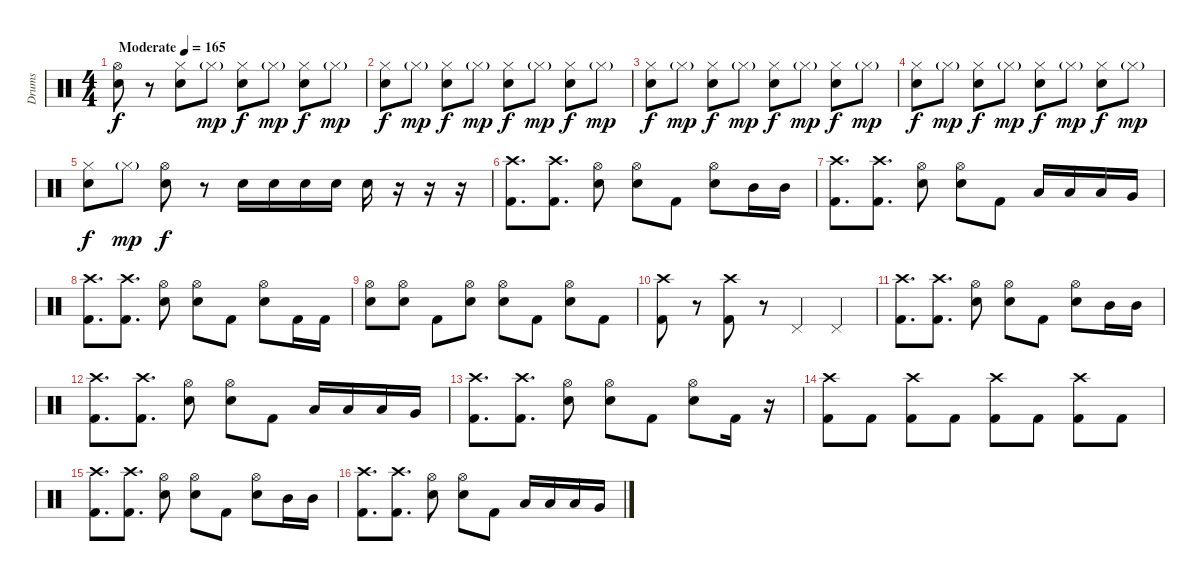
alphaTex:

\track ("Drums" "Drums") {instrument percussion}
\staff {score}
\articulation defaults
\ts (4 4)
\tempo (165 "Moderate")
\clef neutral
\ks c
("Hi-Hat (open)" "Electric Snare (hit)").8{dy f} r.8 ("Hi-Hat (closed)" "Electric Snare (hit)").8 "Hi-Hat (closed)"{g}.8{dy mp} ("Hi-Hat (closed)" "Electric Snare (hit)").8{dy f} "Hi-Hat (closed)"{g}.8{dy mp} ("Hi-Hat (closed)" "Electric Snare (hit)").8{dy f} "Hi-Hat (closed)"{g}.8{dy mp} |
("Hi-Hat (closed)" "Electric Snare (hit)").8{dy f} "Hi-Hat (closed)"{g}.8{dy mp} ("Hi-Hat (closed)" "Electric Snare (hit)").8{dy f} "Hi-Hat (closed)"{g}.8{dy mp} ("Hi-Hat (closed)" "Electric Snare (hit)").8{dy f} "Hi-Hat (closed)"{g}.8{dy mp} ("Hi-Hat (closed)" "Electric Snare (hit)").8{dy f} "Hi-Hat (closed)"{g}.8{dy mp} |
("Hi-Hat (closed)" "Electric Snare (hit)").8{dy f} "Hi-Hat (closed)"{g}.8{dy mp} ("Hi-Hat (closed)" "Electric Snare (hit)").8{dy f} "Hi-Hat (closed)"{g}.8{dy mp} ("Hi-Hat (closed)" "Electric Snare (hit)").8{dy f} "Hi-Hat (closed)"{g}.8{dy mp} ("Hi-Hat (closed)" "Electric Snare (hit)").8{dy f} "Hi-Hat (closed)"{g}.8{dy mp} |
("Hi-Hat (closed)" "Electric Snare (hit)").8{dy f} "Hi-Hat (closed)"{g}.8{dy mp} ("Hi-Hat (closed)" "Electric Snare (hit)").8{dy f} "Hi-Hat (closed)"{g}.8{dy mp} ("Hi-Hat (closed)" "Electric Snare (hit)").8{dy f} "Hi-Hat (closed)"{g}.8{dy mp} ("Hi-Hat (closed)" "Electric Snare (hit)").8{dy f} "Hi-Hat (closed)"{g}.8{dy mp} |
("Hi-Hat (closed)" "Electric Snare (hit)").8{dy f} "Hi-Hat (closed)"{g}.8{dy mp} ("Hi-Hat (open)" "Electric Snare (hit)").8{dy f} r.8 "Electric Snare (hit)".16 "Electric Snare (hit)".16 "Electric Snare (hit)".16 "Electric Snare (hit)".16 "Electric Snare (hit)".16 r.16 r.16 r.16 |
("Kick (hit) 2" "Crash high (hit)").8{d} ("Kick (hit) 2" "Crash high (hit)").8{d} ("Electric Snare (hit)" "Hi-Hat (open)").8 ("Electric Snare (hit)" "Hi-Hat (open)").8 "Kick (hit) 2".8 ("Electric Snare (hit)" "Hi-Hat (open)").8 "Mid Tom (hit)".16 "Mid Tom (hit)".16 |
("Kick (hit) 2" "Crash high (hit)").8{d} ("Kick (hit) 2" "Crash high (hit)").8{d} ("Electric Snare (hit)" "Hi-Hat (open)").8 ("Electric Snare (hit)" "Hi-Hat (open)").8 "Kick (hit) 2".8 "Low Tom (hit)".16 "Low Tom (hit)".16 "Low Tom (hit)".16 "Very Low Tom (hit)".16 |
("Kick (hit) 2" "Crash high (hit)").8{d} ("Kick (hit) 2" "Crash high (hit)").8{d} ("Electric Snare (hit)" "Hi-Hat (open)").8 ("Electric Snare (hit)" "Hi-Hat (open)").8 "Kick (hit) 2".8 ("Electric Snare (hit)" "Hi-Hat (open)").8 "Kick (hit) 2".16 "Kick (hit) 2".16 |
("Electric Snare (hit)" "Hi-Hat (open)").8 ("Electric Snare (hit)" "Hi-Hat (open)").8 "Kick (hit) 2".8 ("Electric Snare (hit)" "Hi-Hat (open)").8 ("Electric Snare (hit)" "Hi-Hat (open)").8 "Kick (hit) 2".8 ("Electric Snare (hit)" "Hi-Hat (open)").8 "Kick (hit) 2".8 |
("Kick (hit) 2" "Crash high (hit)").8 r.8 ("Kick (hit) 2" "Crash high (hit)").8 r.8 "Pedal Hi-Hat (hit)".4 "Pedal Hi-Hat (hit)".4 |
("Kick (hit) 2" "Crash high (hit)").8{d} ("Kick (hit) 2" "Crash high (hit)").8{d} ("Electric Snare (hit)" "Hi-Hat (open)").8 ("Electric Snare (hit)" "Hi-Hat (open)").8 "Kick (hit) 2".8 ("Electric Snare (hit)" "Hi-Hat (open)").8 "Mid Tom (hit)".16 "Mid Tom (hit)".16 |
("Kick (hit) 2" "Crash high (hit)").8{d} ("Kick (hit) 2" "Crash high (hit)").8{d} ("Electric Snare (hit)" "Hi-Hat (open)").8 ("Electric Snare (hit)" "Hi-Hat (open)").8 "Kick (hit) 2".8 "Low Tom (hit)".16 "Low Tom (hit)".16 "Low Tom (hit)".16 "Very Low Tom (hit)".16 |
("Kick (hit) 2" "Crash high (hit)").8{d} ("Kick (hit) 2" "Crash high (hit)").8{d} ("Electric Snare (hit)" "Hi-Hat (open)").8 ("Electric Snare (hit)" "Hi-Hat (open)").8 "Kick (hit) 2".8 ("Electric Snare (hit)" "Hi-Hat (open)").8 "Kick (hit) 2".16 r.16 |
("Kick (hit) 2" "Crash high (hit)").8 "Kick (hit) 2".8 ("Kick (hit) 2" "Crash high (hit)").8 "Kick (hit) 2".8 ("Kick (hit) 2" "Crash high (hit)").8 "Kick (hit) 2".8 ("Kick (hit) 2" "Crash high (hit)").8 "Kick (hit) 2".8 |
("Kick (hit) 2" "Crash high (hit)").8{d} ("Kick (hit) 2" "Crash high (hit)").8{d} ("Electric Snare (hit)" "Hi-Hat (open)").8 ("Electric Snare (hit)" "Hi-Hat (open)").8 "Kick (hit) 2".8 ("Electric Snare (hit)" "Hi-Hat (open)").8 "Mid Tom (hit)".16 "Mid Tom (hit)".16 |
("Kick (hit) 2" "Crash high (hit)").8{d} ("Kick (hit) 2" "Crash high (hit)").8{d} ("Electric Snare (hit)" "Hi-Hat (open)").8 ("Electric Snare (hit)" "Hi-Hat (open)").8 "Kick (hit) 2".8 "Low Tom (hit)".16 "Low Tom (hit)".16 "Low Tom (hit)".16 "Very Low Tom (hit)".16
